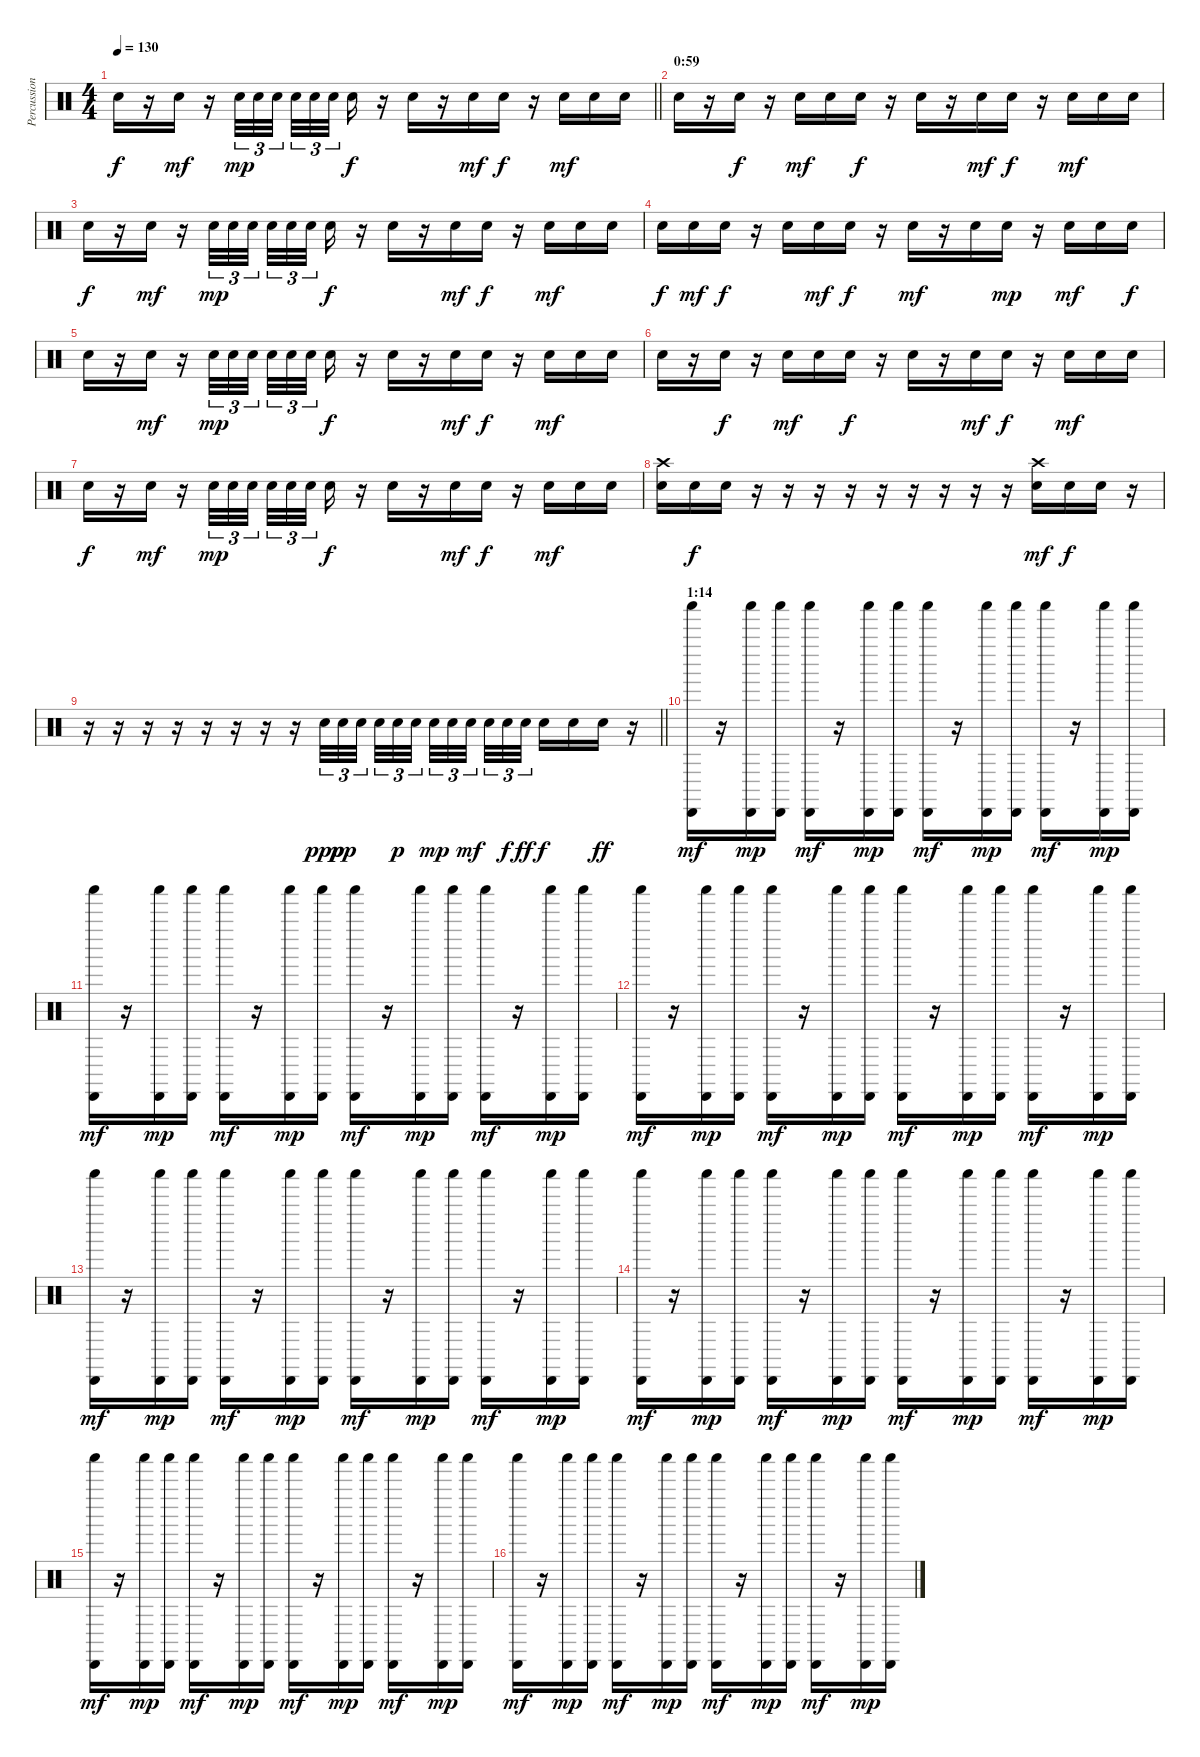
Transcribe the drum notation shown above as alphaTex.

\track ("Percussion" "Percussion") {instrument percussion}
\staff {score}
\articulation defaults
\ts (4 4)
\tempo 130
\clef neutral
\barLineRight lightlight
\ks c "Snare (hit) 2".16{dy f}
r.16 "Snare (hit) 2".16{dy mf} r.16 "Snare (hit) 2".32{tu (3 2) dy mp} "Snare (hit) 2".32{tu (3 2)} "Snare (hit) 2".32{tu (3 2) beam splitsecondary} "Snare (hit) 2".32{tu (3 2)} "Snare (hit) 2".32{tu (3 2)} "Snare (hit) 2".32{tu (3 2) beam splitsecondary} "Snare (hit) 2".16{dy f} r.16 "Snare (hit) 2".16 r.16 "Snare (hit) 2".16{dy mf} "Snare (hit) 2".16{dy f} r.16 "Snare (hit) 2".16{dy mf} "Snare (hit) 2".16 "Snare (hit) 2".16 |
\section ("" "0:59")
"Snare (hit) 2".16 r.16 "Snare (hit) 2".16{dy f} r.16 "Snare (hit) 2".16{dy mf} "Snare (hit) 2".16 "Snare (hit) 2".16{dy f} r.16 "Snare (hit) 2".16 r.16 "Snare (hit) 2".16{dy mf} "Snare (hit) 2".16{dy f} r.16 "Snare (hit) 2".16{dy mf} "Snare (hit) 2".16 "Snare (hit) 2".16 |
"Snare (hit) 2".16{dy f} r.16 "Snare (hit) 2".16{dy mf} r.16 "Snare (hit) 2".32{tu (3 2) dy mp} "Snare (hit) 2".32{tu (3 2)} "Snare (hit) 2".32{tu (3 2) beam splitsecondary} "Snare (hit) 2".32{tu (3 2)} "Snare (hit) 2".32{tu (3 2)} "Snare (hit) 2".32{tu (3 2) beam splitsecondary} "Snare (hit) 2".16{dy f} r.16 "Snare (hit) 2".16 r.16 "Snare (hit) 2".16{dy mf} "Snare (hit) 2".16{dy f} r.16 "Snare (hit) 2".16{dy mf} "Snare (hit) 2".16 "Snare (hit) 2".16 |
"Snare (hit) 2".16{dy f} "Snare (hit) 2".16{dy mf} "Snare (hit) 2".16{dy f} r.16 "Snare (hit) 2".16 "Snare (hit) 2".16{dy mf} "Snare (hit) 2".16{dy f} r.16 "Snare (hit) 2".16{dy mf} r.16 "Snare (hit) 2".16 "Snare (hit) 2".16{dy mp} r.16 "Snare (hit) 2".16{dy mf} "Snare (hit) 2".16 "Snare (hit) 2".16{dy f} |
"Snare (hit) 2".16 r.16 "Snare (hit) 2".16{dy mf} r.16 "Snare (hit) 2".32{tu (3 2) dy mp} "Snare (hit) 2".32{tu (3 2)} "Snare (hit) 2".32{tu (3 2) beam splitsecondary} "Snare (hit) 2".32{tu (3 2)} "Snare (hit) 2".32{tu (3 2)} "Snare (hit) 2".32{tu (3 2) beam splitsecondary} "Snare (hit) 2".16{dy f} r.16 "Snare (hit) 2".16 r.16 "Snare (hit) 2".16{dy mf} "Snare (hit) 2".16{dy f} r.16 "Snare (hit) 2".16{dy mf} "Snare (hit) 2".16 "Snare (hit) 2".16 |
"Snare (hit) 2".16 r.16 "Snare (hit) 2".16{dy f} r.16 "Snare (hit) 2".16{dy mf} "Snare (hit) 2".16 "Snare (hit) 2".16{dy f} r.16 "Snare (hit) 2".16 r.16 "Snare (hit) 2".16{dy mf} "Snare (hit) 2".16{dy f} r.16 "Snare (hit) 2".16{dy mf} "Snare (hit) 2".16 "Snare (hit) 2".16 |
"Snare (hit) 2".16{dy f} r.16 "Snare (hit) 2".16{dy mf} r.16 "Snare (hit) 2".32{tu (3 2) dy mp} "Snare (hit) 2".32{tu (3 2)} "Snare (hit) 2".32{tu (3 2) beam splitsecondary} "Snare (hit) 2".32{tu (3 2)} "Snare (hit) 2".32{tu (3 2)} "Snare (hit) 2".32{tu (3 2) beam splitsecondary} "Snare (hit) 2".16{dy f} r.16 "Snare (hit) 2".16 r.16 "Snare (hit) 2".16{dy mf} "Snare (hit) 2".16{dy f} r.16 "Snare (hit) 2".16{dy mf} "Snare (hit) 2".16 "Snare (hit) 2".16 |
("Crash high (hit)" "Snare (hit) 2").16 "Snare (hit) 2".16{dy f} "Snare (hit) 2".16 r.16 r.16 r.16 r.16 r.16 r.16 r.16 r.16 r.16 ("Crash high (hit)" "Snare (hit) 2").16{dy mf} "Snare (hit) 2".16{dy f} "Snare (hit) 2".16 r.16 |
\barLineRight lightlight
r.16 r.16 r.16 r.16 r.16 r.16 r.16 r.16 "Snare (hit) 2".32{tu (3 2) dy ppp} "Snare (hit) 2".32{tu (3 2) dy pp} "Snare (hit) 2".32{tu (3 2) beam splitsecondary} "Snare (hit) 2".32{tu (3 2)} "Snare (hit) 2".32{tu (3 2) dy p} "Snare (hit) 2".32{tu (3 2) beam splitsecondary} "Snare (hit) 2".32{tu (3 2) dy mp} "Snare (hit) 2".32{tu (3 2)} "Snare (hit) 2".32{tu (3 2) dy mf beam splitsecondary} "Snare (hit) 2".32{tu (3 2)} "Snare (hit) 2".32{tu (3 2) dy f} "Snare (hit) 2".32{tu (3 2) dy ff} "Snare (hit) 2".16{dy f} "Snare (hit) 2".16 "Snare (hit) 2".16{dy ff} r.16 |
\section ("" "1:14")
("Cabasa (hit)" "Shaker (hit)").16{dy mf} r.16 ("Cabasa (hit)" "Shaker (hit)").16{dy mp} ("Cabasa (hit)" "Shaker (hit)").16 ("Cabasa (hit)" "Shaker (hit)").16{dy mf} r.16 ("Cabasa (hit)" "Shaker (hit)").16{dy mp} ("Cabasa (hit)" "Shaker (hit)").16 ("Cabasa (hit)" "Shaker (hit)").16{dy mf} r.16 ("Cabasa (hit)" "Shaker (hit)").16{dy mp} ("Cabasa (hit)" "Shaker (hit)").16 ("Cabasa (hit)" "Shaker (hit)").16{dy mf} r.16 ("Cabasa (hit)" "Shaker (hit)").16{dy mp} ("Cabasa (hit)" "Shaker (hit)").16 |
("Cabasa (hit)" "Shaker (hit)").16{dy mf} r.16 ("Cabasa (hit)" "Shaker (hit)").16{dy mp} ("Cabasa (hit)" "Shaker (hit)").16 ("Cabasa (hit)" "Shaker (hit)").16{dy mf} r.16 ("Cabasa (hit)" "Shaker (hit)").16{dy mp} ("Cabasa (hit)" "Shaker (hit)").16 ("Cabasa (hit)" "Shaker (hit)").16{dy mf} r.16 ("Cabasa (hit)" "Shaker (hit)").16{dy mp} ("Cabasa (hit)" "Shaker (hit)").16 ("Cabasa (hit)" "Shaker (hit)").16{dy mf} r.16 ("Cabasa (hit)" "Shaker (hit)").16{dy mp} ("Cabasa (hit)" "Shaker (hit)").16 |
("Cabasa (hit)" "Shaker (hit)").16{dy mf} r.16 ("Cabasa (hit)" "Shaker (hit)").16{dy mp} ("Cabasa (hit)" "Shaker (hit)").16 ("Cabasa (hit)" "Shaker (hit)").16{dy mf} r.16 ("Cabasa (hit)" "Shaker (hit)").16{dy mp} ("Cabasa (hit)" "Shaker (hit)").16 ("Cabasa (hit)" "Shaker (hit)").16{dy mf} r.16 ("Cabasa (hit)" "Shaker (hit)").16{dy mp} ("Cabasa (hit)" "Shaker (hit)").16 ("Cabasa (hit)" "Shaker (hit)").16{dy mf} r.16 ("Cabasa (hit)" "Shaker (hit)").16{dy mp} ("Cabasa (hit)" "Shaker (hit)").16 |
("Cabasa (hit)" "Shaker (hit)").16{dy mf} r.16 ("Cabasa (hit)" "Shaker (hit)").16{dy mp} ("Cabasa (hit)" "Shaker (hit)").16 ("Cabasa (hit)" "Shaker (hit)").16{dy mf} r.16 ("Cabasa (hit)" "Shaker (hit)").16{dy mp} ("Cabasa (hit)" "Shaker (hit)").16 ("Cabasa (hit)" "Shaker (hit)").16{dy mf} r.16 ("Cabasa (hit)" "Shaker (hit)").16{dy mp} ("Cabasa (hit)" "Shaker (hit)").16 ("Cabasa (hit)" "Shaker (hit)").16{dy mf} r.16 ("Cabasa (hit)" "Shaker (hit)").16{dy mp} ("Cabasa (hit)" "Shaker (hit)").16 |
("Cabasa (hit)" "Shaker (hit)").16{dy mf} r.16 ("Cabasa (hit)" "Shaker (hit)").16{dy mp} ("Cabasa (hit)" "Shaker (hit)").16 ("Cabasa (hit)" "Shaker (hit)").16{dy mf} r.16 ("Cabasa (hit)" "Shaker (hit)").16{dy mp} ("Cabasa (hit)" "Shaker (hit)").16 ("Cabasa (hit)" "Shaker (hit)").16{dy mf} r.16 ("Cabasa (hit)" "Shaker (hit)").16{dy mp} ("Cabasa (hit)" "Shaker (hit)").16 ("Cabasa (hit)" "Shaker (hit)").16{dy mf} r.16 ("Cabasa (hit)" "Shaker (hit)").16{dy mp} ("Cabasa (hit)" "Shaker (hit)").16 |
("Cabasa (hit)" "Shaker (hit)").16{dy mf} r.16 ("Cabasa (hit)" "Shaker (hit)").16{dy mp} ("Cabasa (hit)" "Shaker (hit)").16 ("Cabasa (hit)" "Shaker (hit)").16{dy mf} r.16 ("Cabasa (hit)" "Shaker (hit)").16{dy mp} ("Cabasa (hit)" "Shaker (hit)").16 ("Cabasa (hit)" "Shaker (hit)").16{dy mf} r.16 ("Cabasa (hit)" "Shaker (hit)").16{dy mp} ("Cabasa (hit)" "Shaker (hit)").16 ("Cabasa (hit)" "Shaker (hit)").16{dy mf} r.16 ("Cabasa (hit)" "Shaker (hit)").16{dy mp} ("Cabasa (hit)" "Shaker (hit)").16 |
("Cabasa (hit)" "Shaker (hit)").16{dy mf} r.16 ("Cabasa (hit)" "Shaker (hit)").16{dy mp} ("Cabasa (hit)" "Shaker (hit)").16 ("Cabasa (hit)" "Shaker (hit)").16{dy mf} r.16 ("Cabasa (hit)" "Shaker (hit)").16{dy mp} ("Cabasa (hit)" "Shaker (hit)").16 ("Cabasa (hit)" "Shaker (hit)").16{dy mf} r.16 ("Cabasa (hit)" "Shaker (hit)").16{dy mp} ("Cabasa (hit)" "Shaker (hit)").16 ("Cabasa (hit)" "Shaker (hit)").16{dy mf} r.16 ("Cabasa (hit)" "Shaker (hit)").16{dy mp} ("Cabasa (hit)" "Shaker (hit)").16
